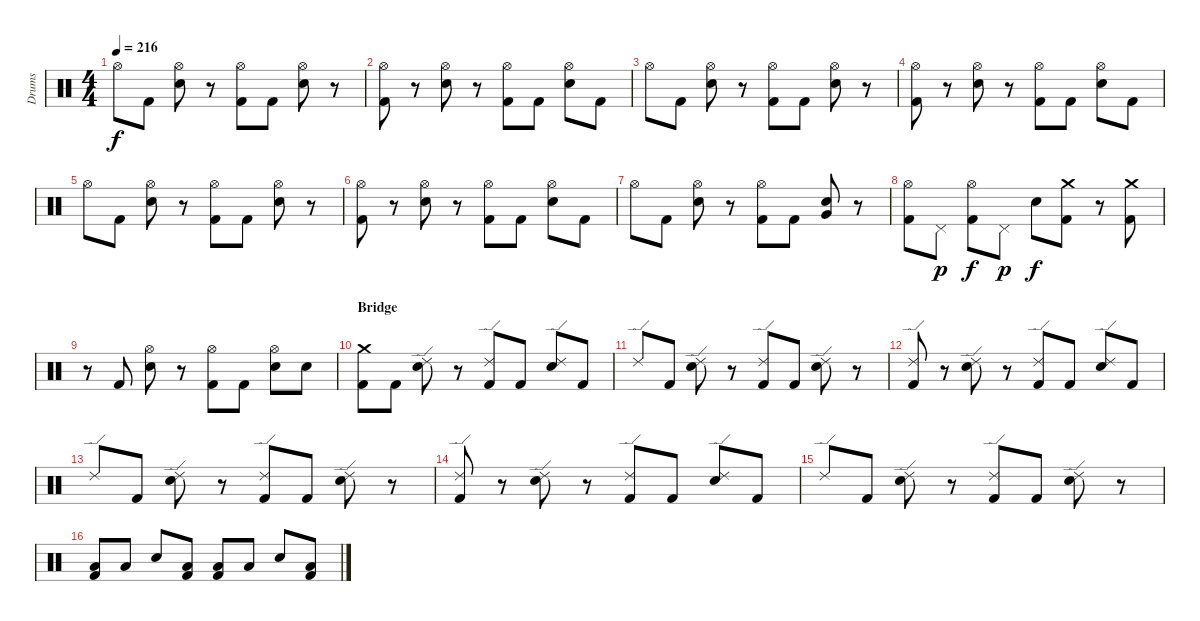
\track ("Drums" "Drums") {instrument percussion}
\staff {score}
\articulation defaults
\ts (4 4)
\tempo 216
\clef neutral
\ks c "Hi-Hat (open)".8{dy f} "Kick (hit) 2".8
("Hi-Hat (open)" "Electric Snare (hit)").8 r.8 ("Hi-Hat (open)" "Kick (hit) 2").8 "Kick (hit) 2".8 ("Hi-Hat (open)" "Electric Snare (hit)").8 r.8 |
("Hi-Hat (open)" "Kick (hit) 2").8 r.8 ("Hi-Hat (open)" "Electric Snare (hit)").8 r.8 ("Hi-Hat (open)" "Kick (hit) 2").8 "Kick (hit) 2".8 ("Hi-Hat (open)" "Electric Snare (hit)").8 "Kick (hit) 2".8 |
"Hi-Hat (open)".8 "Kick (hit) 2".8 ("Hi-Hat (open)" "Electric Snare (hit)").8 r.8 ("Hi-Hat (open)" "Kick (hit) 2").8 "Kick (hit) 2".8 ("Hi-Hat (open)" "Electric Snare (hit)").8 r.8 |
("Hi-Hat (open)" "Kick (hit) 2").8 r.8 ("Hi-Hat (open)" "Electric Snare (hit)").8 r.8 ("Hi-Hat (open)" "Kick (hit) 2").8 "Kick (hit) 2".8 ("Hi-Hat (open)" "Electric Snare (hit)").8 "Kick (hit) 2".8 |
"Hi-Hat (open)".8 "Kick (hit) 2".8 ("Hi-Hat (open)" "Electric Snare (hit)").8 r.8 ("Hi-Hat (open)" "Kick (hit) 2").8 "Kick (hit) 2".8 ("Hi-Hat (open)" "Electric Snare (hit)").8 r.8 |
("Hi-Hat (open)" "Kick (hit) 2").8 r.8 ("Hi-Hat (open)" "Electric Snare (hit)").8 r.8 ("Hi-Hat (open)" "Kick (hit) 2").8 "Kick (hit) 2".8 ("Hi-Hat (open)" "Electric Snare (hit)").8 "Kick (hit) 2".8 |
"Hi-Hat (open)".8 "Kick (hit) 2".8 ("Hi-Hat (open)" "Electric Snare (hit)").8 r.8 ("Hi-Hat (open)" "Kick (hit) 2").8 "Kick (hit) 2".8 ("Very Low Tom (hit)" "Electric Snare (hit)").8 r.8 |
("Hi-Hat (open)" "Kick (hit) 2").8 "Pedal Hi-Hat (hit)".8{dy p} ("Hi-Hat (open)" "Kick (hit) 2").8{dy f} "Pedal Hi-Hat (hit)".8{dy p} "Electric Snare (hit)".8{dy f} ("Crash medium (hit)" "Kick (hit) 2").8 r.8 ("Crash medium (hit)" "Kick (hit) 2").8 |
r.8 "Kick (hit) 2".8 ("Hi-Hat (open)" "Electric Snare (hit)").8 r.8 ("Hi-Hat (open)" "Kick (hit) 2").8 "Kick (hit) 2".8 ("Hi-Hat (open)" "Electric Snare (hit)").8 "Electric Snare (hit)".8 |
\section ("" "Bridge")
("Crash medium (hit)" "Kick (hit) 2").8 "Kick (hit) 2".8 ("Ride (edge) 2" "Electric Snare (hit)").8 r.8 ("Ride (edge) 2" "Kick (hit) 2").8 "Kick (hit) 2".8 ("Ride (edge) 2" "Electric Snare (hit)").8 "Kick (hit) 2".8 |
"Ride (edge) 2".8 "Kick (hit) 2".8 ("Ride (edge) 2" "Electric Snare (hit)").8 r.8 ("Ride (edge) 2" "Kick (hit) 2").8 "Kick (hit) 2".8 ("Ride (edge) 2" "Electric Snare (hit)").8 r.8 |
("Ride (edge) 2" "Kick (hit) 2").8 r.8 ("Ride (edge) 2" "Electric Snare (hit)").8 r.8 ("Ride (edge) 2" "Kick (hit) 2").8 "Kick (hit) 2".8 ("Ride (edge) 2" "Electric Snare (hit)").8 "Kick (hit) 2".8 |
"Ride (edge) 2".8 "Kick (hit) 2".8 ("Ride (edge) 2" "Electric Snare (hit)").8 r.8 ("Ride (edge) 2" "Kick (hit) 2").8 "Kick (hit) 2".8 ("Ride (edge) 2" "Electric Snare (hit)").8 r.8 |
("Ride (edge) 2" "Kick (hit) 2").8 r.8 ("Ride (edge) 2" "Electric Snare (hit)").8 r.8 ("Ride (edge) 2" "Kick (hit) 2").8 "Kick (hit) 2".8 ("Ride (edge) 2" "Electric Snare (hit)").8 "Kick (hit) 2".8 |
"Ride (edge) 2".8 "Kick (hit) 2".8 ("Ride (edge) 2" "Electric Snare (hit)").8 r.8 ("Ride (edge) 2" "Kick (hit) 2").8 "Kick (hit) 2".8 ("Ride (edge) 2" "Electric Snare (hit)").8 r.8 |
("Low Tom (hit)" "Kick (hit) 2").8 "Low Tom (hit)".8 "Electric Snare (hit)".8 ("Low Tom (hit)" "Kick (hit) 2").8 ("Low Tom (hit)" "Kick (hit) 2").8 "Low Tom (hit)".8 "Electric Snare (hit)".8 ("Low Tom (hit)" "Kick (hit) 2").8
